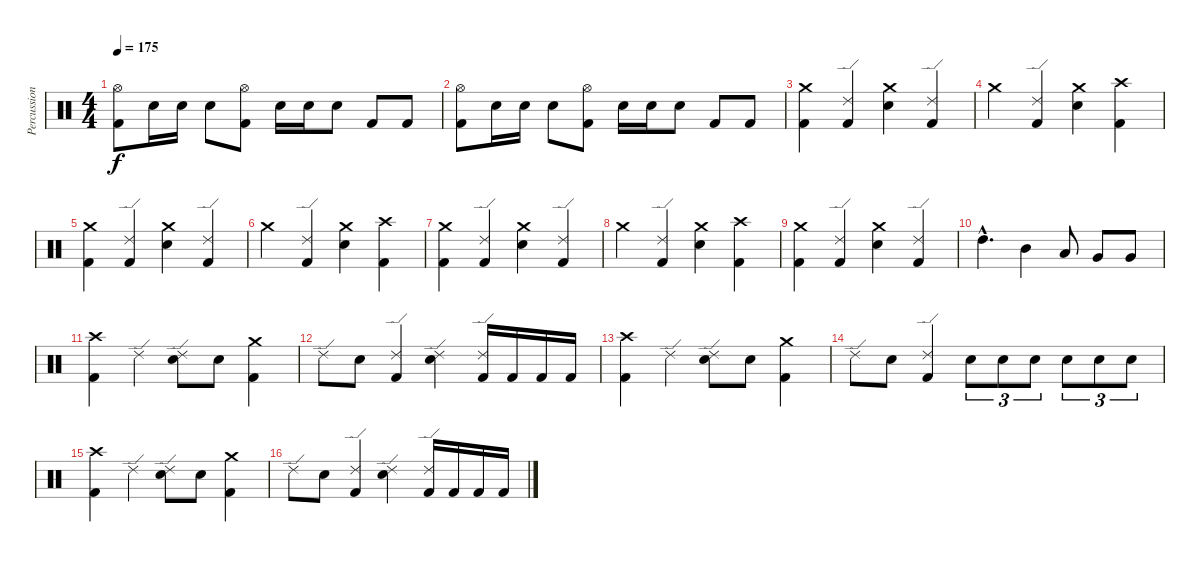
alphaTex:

\track ("Percussion" "Percussion") {instrument percussion}
\staff {score}
\articulation defaults
\ts (4 4)
\tempo 175
\clef neutral
\ks c
("Hi-Hat (open)" "Kick (hit) 2").8{dy f} "Snare (hit) 2".16 "Snare (hit) 2".16 "Snare (hit) 2".8 ("Hi-Hat (open)" "Kick (hit) 2").8 "Snare (hit) 2".16 "Snare (hit) 2".16 "Snare (hit) 2".8 "Kick (hit) 2".8 "Kick (hit) 2".8 |
("Hi-Hat (open)" "Kick (hit) 2").8 "Snare (hit) 2".16 "Snare (hit) 2".16 "Snare (hit) 2".8 ("Hi-Hat (open)" "Kick (hit) 2").8 "Snare (hit) 2".16 "Snare (hit) 2".16 "Snare (hit) 2".8 "Kick (hit) 2".8 "Kick (hit) 2".8 |
("Crash medium (hit)" "Kick (hit) 2").4 ("Ride (edge) 2" "Kick (hit) 2").4 ("Crash medium (hit)" "Snare (hit) 2").4 ("Ride (edge) 2" "Kick (hit) 2").4 |
"Crash medium (hit)".4 ("Ride (edge) 2" "Kick (hit) 2").4 ("Crash medium (hit)" "Snare (hit) 2").4 ("Crash high (hit)" "Kick (hit) 2").4 |
("Crash medium (hit)" "Kick (hit) 2").4 ("Ride (edge) 2" "Kick (hit) 2").4 ("Crash medium (hit)" "Snare (hit) 2").4 ("Ride (edge) 2" "Kick (hit) 2").4 |
"Crash medium (hit)".4 ("Ride (edge) 2" "Kick (hit) 2").4 ("Crash medium (hit)" "Snare (hit) 2").4 ("Crash high (hit)" "Kick (hit) 2").4 |
("Crash medium (hit)" "Kick (hit) 2").4 ("Ride (edge) 2" "Kick (hit) 2").4 ("Crash medium (hit)" "Snare (hit) 2").4 ("Ride (edge) 2" "Kick (hit) 2").4 |
"Crash medium (hit)".4 ("Ride (edge) 2" "Kick (hit) 2").4 ("Crash medium (hit)" "Snare (hit) 2").4 ("Crash high (hit)" "Kick (hit) 2").4 |
("Crash medium (hit)" "Kick (hit) 2").4 ("Ride (edge) 2" "Kick (hit) 2").4 ("Crash medium (hit)" "Snare (hit) 2").4 ("Ride (edge) 2" "Kick (hit) 2").4 |
"High Tom (hit)"{hac}.4{d} "Mid Tom (hit)".4 "Low Tom (hit)".8 "Very Low Tom (hit)".8 "Very Low Tom (hit)".8 |
("Crash high (hit)" "Kick (hit) 2").4 "Ride (edge) 2".4 ("Ride (edge) 2" "Snare (hit) 2").8 "Snare (hit) 2".8 ("Crash medium (hit)" "Kick (hit) 2").4 |
"Ride (edge) 2".8 "Snare (hit) 2".8 ("Ride (edge) 2" "Kick (hit) 2").4 ("Ride (edge) 2" "Snare (hit) 2").4 ("Ride (edge) 2" "Kick (hit) 2").16 "Kick (hit) 2".16 "Kick (hit) 2".16 "Kick (hit) 2".16 |
("Crash high (hit)" "Kick (hit) 2").4 "Ride (edge) 2".4 ("Ride (edge) 2" "Snare (hit) 2").8 "Snare (hit) 2".8 ("Crash medium (hit)" "Kick (hit) 2").4 |
"Ride (edge) 2".8 "Snare (hit) 2".8 ("Ride (edge) 2" "Kick (hit) 2").4 "Snare (hit) 2".8{tu (3 2)} "Snare (hit) 2".8{tu (3 2)} "Snare (hit) 2".8{tu (3 2)} "Snare (hit) 2".8{tu (3 2)} "Snare (hit) 2".8{tu (3 2)} "Snare (hit) 2".8{tu (3 2)} |
("Crash high (hit)" "Kick (hit) 2").4 "Ride (edge) 2".4 ("Ride (edge) 2" "Snare (hit) 2").8 "Snare (hit) 2".8 ("Crash medium (hit)" "Kick (hit) 2").4 |
"Ride (edge) 2".8 "Snare (hit) 2".8 ("Ride (edge) 2" "Kick (hit) 2").4 ("Ride (edge) 2" "Snare (hit) 2").4 ("Ride (edge) 2" "Kick (hit) 2").16 "Kick (hit) 2".16 "Kick (hit) 2".16 "Kick (hit) 2".16
